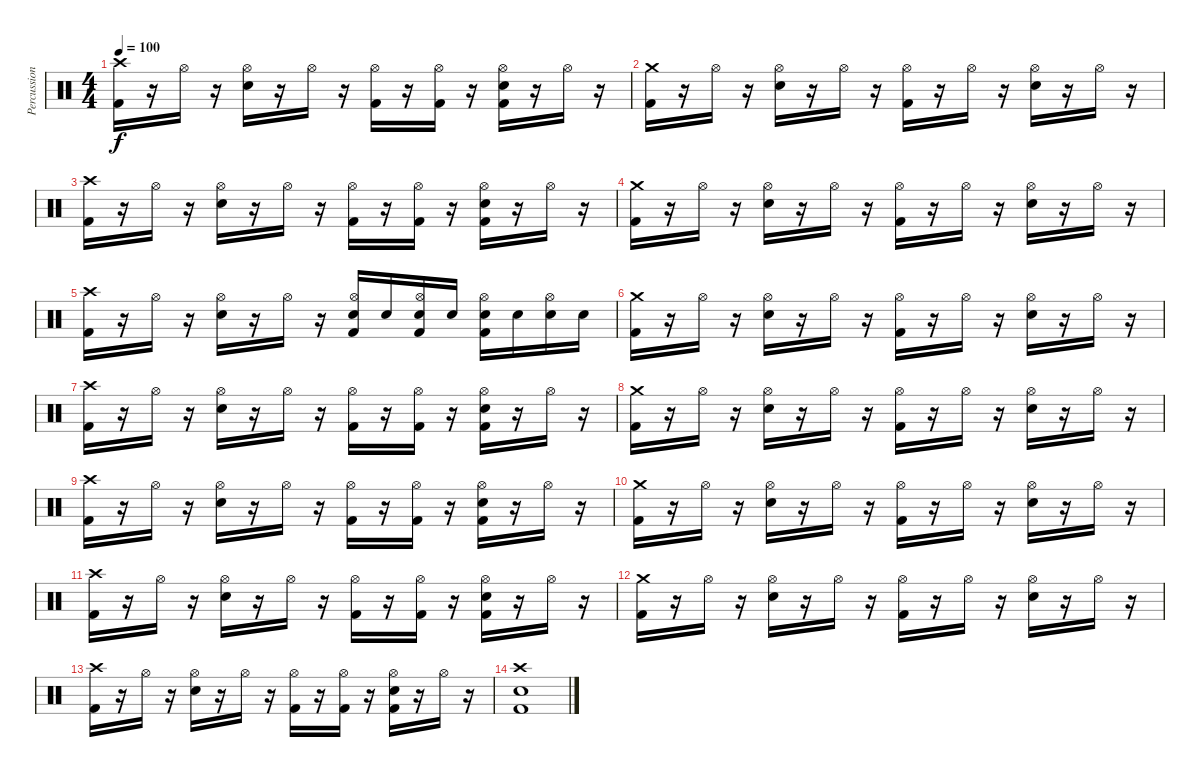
\track ("Percussion" "Percussion") {instrument percussion}
\staff {score}
\articulation defaults
\ts (4 4)
\tempo 100
\clef neutral
\ks c
("Crash high (hit)" "Kick (hit) 2").16{dy f} r.16 "Hi-Hat (open)".16 r.16 ("Hi-Hat (open)" "Electric Snare (hit)").16 r.16 "Hi-Hat (open)".16 r.16 ("Hi-Hat (open)" "Kick (hit) 2").16 r.16 ("Hi-Hat (open)" "Kick (hit) 2").16 r.16 ("Hi-Hat (open)" "Electric Snare (hit)" "Kick (hit) 2").16 r.16 "Hi-Hat (open)".16 r.16 |
("Crash medium (hit)" "Kick (hit) 2").16 r.16 "Hi-Hat (open)".16 r.16 ("Hi-Hat (open)" "Electric Snare (hit)").16 r.16 "Hi-Hat (open)".16 r.16 ("Hi-Hat (open)" "Kick (hit) 2").16 r.16 "Hi-Hat (open)".16 r.16 ("Hi-Hat (open)" "Electric Snare (hit)").16 r.16 "Hi-Hat (open)".16 r.16 |
("Crash high (hit)" "Kick (hit) 2").16 r.16 "Hi-Hat (open)".16 r.16 ("Hi-Hat (open)" "Electric Snare (hit)").16 r.16 "Hi-Hat (open)".16 r.16 ("Hi-Hat (open)" "Kick (hit) 2").16 r.16 ("Hi-Hat (open)" "Kick (hit) 2").16 r.16 ("Hi-Hat (open)" "Electric Snare (hit)" "Kick (hit) 2").16 r.16 "Hi-Hat (open)".16 r.16 |
("Crash medium (hit)" "Kick (hit) 2").16 r.16 "Hi-Hat (open)".16 r.16 ("Hi-Hat (open)" "Electric Snare (hit)").16 r.16 "Hi-Hat (open)".16 r.16 ("Hi-Hat (open)" "Kick (hit) 2").16 r.16 "Hi-Hat (open)".16 r.16 ("Hi-Hat (open)" "Electric Snare (hit)").16 r.16 "Hi-Hat (open)".16 r.16 |
("Crash high (hit)" "Kick (hit) 2").16 r.16 "Hi-Hat (open)".16 r.16 ("Hi-Hat (open)" "Electric Snare (hit)").16 r.16 "Hi-Hat (open)".16 r.16 ("Hi-Hat (open)" "Electric Snare (hit)" "Kick (hit) 2").16 "Electric Snare (hit)".16 ("Hi-Hat (open)" "Electric Snare (hit)" "Kick (hit) 2").16 "Electric Snare (hit)".16 ("Hi-Hat (open)" "Electric Snare (hit)" "Kick (hit) 2").16 "Electric Snare (hit)".16 ("Hi-Hat (open)" "Electric Snare (hit)").16 "Electric Snare (hit)".16 |
("Crash medium (hit)" "Kick (hit) 2").16 r.16 "Hi-Hat (open)".16 r.16 ("Hi-Hat (open)" "Electric Snare (hit)").16 r.16 "Hi-Hat (open)".16 r.16 ("Hi-Hat (open)" "Kick (hit) 2").16 r.16 "Hi-Hat (open)".16 r.16 ("Hi-Hat (open)" "Electric Snare (hit)").16 r.16 "Hi-Hat (open)".16 r.16 |
("Crash high (hit)" "Kick (hit) 2").16 r.16 "Hi-Hat (open)".16 r.16 ("Hi-Hat (open)" "Electric Snare (hit)").16 r.16 "Hi-Hat (open)".16 r.16 ("Hi-Hat (open)" "Kick (hit) 2").16 r.16 ("Hi-Hat (open)" "Kick (hit) 2").16 r.16 ("Hi-Hat (open)" "Electric Snare (hit)" "Kick (hit) 2").16 r.16 "Hi-Hat (open)".16 r.16 |
("Crash medium (hit)" "Kick (hit) 2").16 r.16 "Hi-Hat (open)".16 r.16 ("Hi-Hat (open)" "Electric Snare (hit)").16 r.16 "Hi-Hat (open)".16 r.16 ("Hi-Hat (open)" "Kick (hit) 2").16 r.16 "Hi-Hat (open)".16 r.16 ("Hi-Hat (open)" "Electric Snare (hit)").16 r.16 "Hi-Hat (open)".16 r.16 |
("Crash high (hit)" "Kick (hit) 2").16 r.16 "Hi-Hat (open)".16 r.16 ("Hi-Hat (open)" "Electric Snare (hit)").16 r.16 "Hi-Hat (open)".16 r.16 ("Hi-Hat (open)" "Kick (hit) 2").16 r.16 ("Hi-Hat (open)" "Kick (hit) 2").16 r.16 ("Hi-Hat (open)" "Electric Snare (hit)" "Kick (hit) 2").16 r.16 "Hi-Hat (open)".16 r.16 |
("Crash medium (hit)" "Kick (hit) 2").16 r.16 "Hi-Hat (open)".16 r.16 ("Hi-Hat (open)" "Electric Snare (hit)").16 r.16 "Hi-Hat (open)".16 r.16 ("Hi-Hat (open)" "Kick (hit) 2").16 r.16 "Hi-Hat (open)".16 r.16 ("Hi-Hat (open)" "Electric Snare (hit)").16 r.16 "Hi-Hat (open)".16 r.16 |
("Crash high (hit)" "Kick (hit) 2").16 r.16 "Hi-Hat (open)".16 r.16 ("Hi-Hat (open)" "Electric Snare (hit)").16 r.16 "Hi-Hat (open)".16 r.16 ("Hi-Hat (open)" "Kick (hit) 2").16 r.16 ("Hi-Hat (open)" "Kick (hit) 2").16 r.16 ("Hi-Hat (open)" "Electric Snare (hit)" "Kick (hit) 2").16 r.16 "Hi-Hat (open)".16 r.16 |
("Crash medium (hit)" "Kick (hit) 2").16 r.16 "Hi-Hat (open)".16 r.16 ("Hi-Hat (open)" "Electric Snare (hit)").16 r.16 "Hi-Hat (open)".16 r.16 ("Hi-Hat (open)" "Kick (hit) 2").16 r.16 "Hi-Hat (open)".16 r.16 ("Hi-Hat (open)" "Electric Snare (hit)").16 r.16 "Hi-Hat (open)".16 r.16 |
("Crash high (hit)" "Kick (hit) 2").16 r.16 "Hi-Hat (open)".16 r.16 ("Hi-Hat (open)" "Electric Snare (hit)").16 r.16 "Hi-Hat (open)".16 r.16 ("Hi-Hat (open)" "Kick (hit) 2").16 r.16 ("Hi-Hat (open)" "Kick (hit) 2").16 r.16 ("Hi-Hat (open)" "Electric Snare (hit)" "Kick (hit) 2").16 r.16 "Hi-Hat (open)".16 r.16 |
("Crash high (hit)" "Electric Snare (hit)" "Kick (hit) 2").1
